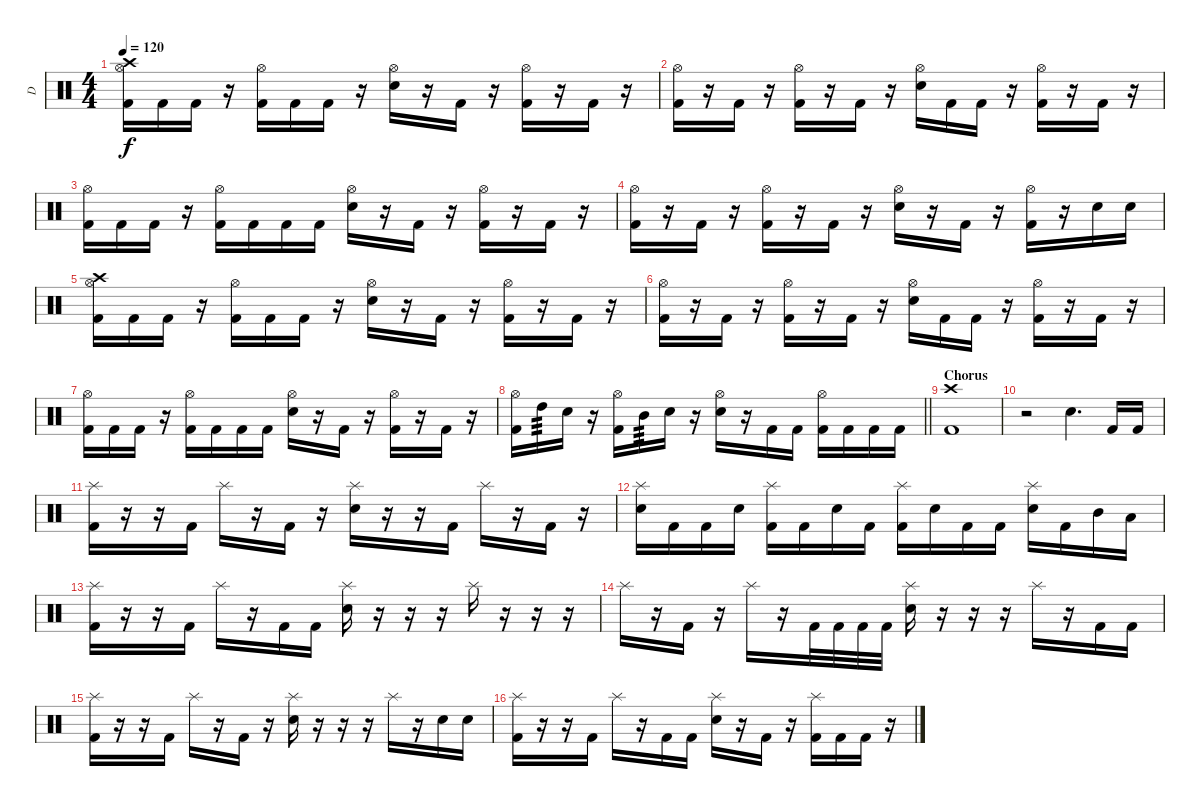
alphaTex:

\track ("D" "D") {instrument percussion}
\staff {score}
\articulation defaults
\ts (4 4)
\tempo 120
\clef neutral
\ks c
("Crash high (hit)" "Kick (hit) 2" "Hi-Hat (open)").16{dy f} "Kick (hit) 2".16 "Kick (hit) 2".16 r.16 ("Kick (hit) 2" "Hi-Hat (open)").16 "Kick (hit) 2".16 "Kick (hit) 2".16 r.16 ("Electric Snare (hit)" "Hi-Hat (open)").16 r.16 "Kick (hit) 2".16 r.16 ("Kick (hit) 2" "Hi-Hat (open)").16 r.16 "Kick (hit) 2".16 r.16 |
("Kick (hit) 2" "Hi-Hat (open)").16 r.16 "Kick (hit) 2".16 r.16 ("Kick (hit) 2" "Hi-Hat (open)").16 r.16 "Kick (hit) 2".16 r.16 ("Electric Snare (hit)" "Hi-Hat (open)").16 "Kick (hit) 2".16 "Kick (hit) 2".16 r.16 ("Kick (hit) 2" "Hi-Hat (open)").16 r.16 "Kick (hit) 2".16 r.16 |
("Kick (hit) 2" "Hi-Hat (open)").16 "Kick (hit) 2".16 "Kick (hit) 2".16 r.16 ("Kick (hit) 2" "Hi-Hat (open)").16 "Kick (hit) 2".16 "Kick (hit) 2".16 "Kick (hit) 2".16 ("Electric Snare (hit)" "Hi-Hat (open)").16 r.16 "Kick (hit) 2".16 r.16 ("Kick (hit) 2" "Hi-Hat (open)").16 r.16 "Kick (hit) 2".16 r.16 |
("Kick (hit) 2" "Hi-Hat (open)").16 r.16 "Kick (hit) 2".16 r.16 ("Kick (hit) 2" "Hi-Hat (open)").16 r.16 "Kick (hit) 2".16 r.16 ("Electric Snare (hit)" "Hi-Hat (open)").16 r.16 "Kick (hit) 2".16 r.16 ("Kick (hit) 2" "Hi-Hat (open)").16 r.16 "Electric Snare (hit)".16 "Electric Snare (hit)".16 |
("Crash high (hit)" "Kick (hit) 2" "Hi-Hat (open)").16 "Kick (hit) 2".16 "Kick (hit) 2".16 r.16 ("Kick (hit) 2" "Hi-Hat (open)").16 "Kick (hit) 2".16 "Kick (hit) 2".16 r.16 ("Electric Snare (hit)" "Hi-Hat (open)").16 r.16 "Kick (hit) 2".16 r.16 ("Kick (hit) 2" "Hi-Hat (open)").16 r.16 "Kick (hit) 2".16 r.16 |
("Kick (hit) 2" "Hi-Hat (open)").16 r.16 "Kick (hit) 2".16 r.16 ("Kick (hit) 2" "Hi-Hat (open)").16 r.16 "Kick (hit) 2".16 r.16 ("Electric Snare (hit)" "Hi-Hat (open)").16 "Kick (hit) 2".16 "Kick (hit) 2".16 r.16 ("Kick (hit) 2" "Hi-Hat (open)").16 r.16 "Kick (hit) 2".16 r.16 |
("Kick (hit) 2" "Hi-Hat (open)").16 "Kick (hit) 2".16 "Kick (hit) 2".16 r.16 ("Kick (hit) 2" "Hi-Hat (open)").16 "Kick (hit) 2".16 "Kick (hit) 2".16 "Kick (hit) 2".16 ("Electric Snare (hit)" "Hi-Hat (open)").16 r.16 "Kick (hit) 2".16 r.16 ("Kick (hit) 2" "Hi-Hat (open)").16 r.16 "Kick (hit) 2".16 r.16 |
\barLineRight lightlight
("Kick (hit) 2" "Hi-Hat (open)").16 "High Tom (hit)".16{tp 3} "Electric Snare (hit)".16 r.16 ("Kick (hit) 2" "Hi-Hat (open)").16 "Mid Tom (hit)".16{tp 3} "Electric Snare (hit)".16 r.16 ("Electric Snare (hit)" "Hi-Hat (open)").16 r.16 "Kick (hit) 2".16 "Kick (hit) 2".16 ("Kick (hit) 2" "Hi-Hat (open)").16 "Kick (hit) 2".16 "Kick (hit) 2".16 "Kick (hit) 2".16 |
\section ("" "Chorus")
("Crash high (hit)" "Kick (hit) 2").1 |
r.2 "Electric Snare (hit)".4{d} "Kick (hit) 2".16 "Kick (hit) 2".16 |
("Kick (hit) 2" "Splash (hit)").16 r.16 r.16 "Kick (hit) 2".16 "Splash (hit)".16 r.16 "Kick (hit) 2".16 r.16 ("Electric Snare (hit)" "Splash (hit)").16 r.16 r.16 "Kick (hit) 2".16 "Splash (hit)".16 r.16 "Kick (hit) 2".16 r.16 |
("Electric Snare (hit)" "Splash (hit)").16 "Kick (hit) 2".16 "Kick (hit) 2".16 "Electric Snare (hit)".16 ("Kick (hit) 2" "Splash (hit)").16 "Kick (hit) 2".16 "Electric Snare (hit)".16 "Kick (hit) 2".16 ("Kick (hit) 2" "Splash (hit)").16 "Electric Snare (hit)".16 "Kick (hit) 2".16 "Kick (hit) 2".16 ("Electric Snare (hit)" "Splash (hit)").16 "Kick (hit) 2".16 "Mid Tom (hit)".16 "Low Tom (hit)".16 |
("Kick (hit) 2" "Splash (hit)").16 r.16 r.16 "Kick (hit) 2".16 "Splash (hit)".16 r.16 "Kick (hit) 2".16 "Kick (hit) 2".16 ("Electric Snare (hit)" "Splash (hit)").16 r.16 r.16 r.16 "Splash (hit)".16 r.16 r.16 r.16 |
"Splash (hit)".16 r.16 "Kick (hit) 2".16 r.16 "Splash (hit)".16 r.16 "Kick (hit) 2".32 "Kick (hit) 2".32 "Kick (hit) 2".32 "Kick (hit) 2".32 ("Electric Snare (hit)" "Splash (hit)").16 r.16 r.16 r.16 "Splash (hit)".16 r.16 "Kick (hit) 2".16 "Kick (hit) 2".16 |
("Kick (hit) 2" "Splash (hit)").16 r.16 r.16 "Kick (hit) 2".16 "Splash (hit)".16 r.16 "Kick (hit) 2".16 r.16 ("Electric Snare (hit)" "Splash (hit)").16 r.16 r.16 r.16 "Splash (hit)".16 r.16 "Electric Snare (hit)".16 "Electric Snare (hit)".16 |
("Kick (hit) 2" "Splash (hit)").16 r.16 r.16 "Kick (hit) 2".16 "Splash (hit)".16 r.16 "Kick (hit) 2".16 "Kick (hit) 2".16 ("Electric Snare (hit)" "Splash (hit)").16 r.16 "Kick (hit) 2".16 r.16 ("Kick (hit) 2" "Splash (hit)").16 "Kick (hit) 2".16 "Kick (hit) 2".16 r.16
